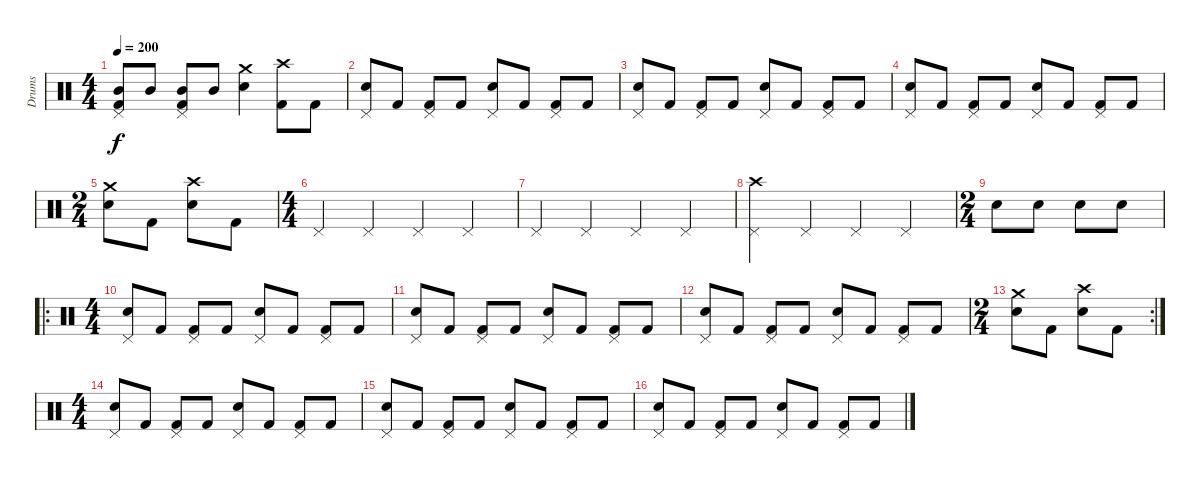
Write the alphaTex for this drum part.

\track ("Drums" "Drums") {instrument percussion}
\staff {score}
\articulation defaults
\ts (4 4)
\tempo 200
\clef neutral
\ks c
("Mid Tom (hit)" "Pedal Hi-Hat (hit)" "Kick (hit) 2").8{dy f} "Mid Tom (hit)".8 ("Mid Tom (hit)" "Pedal Hi-Hat (hit)" "Kick (hit) 2").8 "Mid Tom (hit)".8 ("Crash medium (hit)" "Electric Snare (hit)").4 ("Crash high (hit)" "Kick (hit) 2").8 "Kick (hit) 2".8 |
("Pedal Hi-Hat (hit)" "Electric Snare (hit)").8 "Kick (hit) 2".8 ("Pedal Hi-Hat (hit)" "Kick (hit) 2").8 "Kick (hit) 2".8 ("Pedal Hi-Hat (hit)" "Electric Snare (hit)").8 "Kick (hit) 2".8 ("Pedal Hi-Hat (hit)" "Kick (hit) 2").8 "Kick (hit) 2".8 |
("Pedal Hi-Hat (hit)" "Electric Snare (hit)").8 "Kick (hit) 2".8 ("Pedal Hi-Hat (hit)" "Kick (hit) 2").8 "Kick (hit) 2".8 ("Pedal Hi-Hat (hit)" "Electric Snare (hit)").8 "Kick (hit) 2".8 ("Pedal Hi-Hat (hit)" "Kick (hit) 2").8 "Kick (hit) 2".8 |
("Pedal Hi-Hat (hit)" "Electric Snare (hit)").8 "Kick (hit) 2".8 ("Pedal Hi-Hat (hit)" "Kick (hit) 2").8 "Kick (hit) 2".8 ("Pedal Hi-Hat (hit)" "Electric Snare (hit)").8 "Kick (hit) 2".8 ("Pedal Hi-Hat (hit)" "Kick (hit) 2").8 "Kick (hit) 2".8 |
\ts (2 4)
("Crash medium (hit)" "Electric Snare (hit)").8 "Kick (hit) 2".8 ("Crash high (hit)" "Electric Snare (hit)").8 "Kick (hit) 2".8 |
\ts (4 4)
"Pedal Hi-Hat (hit)".4 "Pedal Hi-Hat (hit)".4 "Pedal Hi-Hat (hit)".4 "Pedal Hi-Hat (hit)".4 |
"Pedal Hi-Hat (hit)".4 "Pedal Hi-Hat (hit)".4 "Pedal Hi-Hat (hit)".4 "Pedal Hi-Hat (hit)".4 |
("Pedal Hi-Hat (hit)" "Crash high (hit)").4 "Pedal Hi-Hat (hit)".4 "Pedal Hi-Hat (hit)".4 "Pedal Hi-Hat (hit)".4 |
\ts (2 4)
"Electric Snare (hit)".8 "Electric Snare (hit)".8 "Electric Snare (hit)".8 "Electric Snare (hit)".8 |
\ro
\ts (4 4)
("Pedal Hi-Hat (hit)" "Electric Snare (hit)").8 "Kick (hit) 2".8 ("Pedal Hi-Hat (hit)" "Kick (hit) 2").8 "Kick (hit) 2".8 ("Pedal Hi-Hat (hit)" "Electric Snare (hit)").8 "Kick (hit) 2".8 ("Pedal Hi-Hat (hit)" "Kick (hit) 2").8 "Kick (hit) 2".8 |
("Pedal Hi-Hat (hit)" "Electric Snare (hit)").8 "Kick (hit) 2".8 ("Pedal Hi-Hat (hit)" "Kick (hit) 2").8 "Kick (hit) 2".8 ("Pedal Hi-Hat (hit)" "Electric Snare (hit)").8 "Kick (hit) 2".8 ("Pedal Hi-Hat (hit)" "Kick (hit) 2").8 "Kick (hit) 2".8 |
("Pedal Hi-Hat (hit)" "Electric Snare (hit)").8 "Kick (hit) 2".8 ("Pedal Hi-Hat (hit)" "Kick (hit) 2").8 "Kick (hit) 2".8 ("Pedal Hi-Hat (hit)" "Electric Snare (hit)").8 "Kick (hit) 2".8 ("Pedal Hi-Hat (hit)" "Kick (hit) 2").8 "Kick (hit) 2".8 |
\rc 2
\ts (2 4)
("Crash medium (hit)" "Electric Snare (hit)").8 "Kick (hit) 2".8 ("Crash high (hit)" "Electric Snare (hit)").8 "Kick (hit) 2".8 |
\ts (4 4)
("Pedal Hi-Hat (hit)" "Electric Snare (hit)").8 "Kick (hit) 2".8 ("Pedal Hi-Hat (hit)" "Kick (hit) 2").8 "Kick (hit) 2".8 ("Pedal Hi-Hat (hit)" "Electric Snare (hit)").8 "Kick (hit) 2".8 ("Pedal Hi-Hat (hit)" "Kick (hit) 2").8 "Kick (hit) 2".8 |
("Pedal Hi-Hat (hit)" "Electric Snare (hit)").8 "Kick (hit) 2".8 ("Pedal Hi-Hat (hit)" "Kick (hit) 2").8 "Kick (hit) 2".8 ("Pedal Hi-Hat (hit)" "Electric Snare (hit)").8 "Kick (hit) 2".8 ("Pedal Hi-Hat (hit)" "Kick (hit) 2").8 "Kick (hit) 2".8 |
("Pedal Hi-Hat (hit)" "Electric Snare (hit)").8 "Kick (hit) 2".8 ("Pedal Hi-Hat (hit)" "Kick (hit) 2").8 "Kick (hit) 2".8 ("Pedal Hi-Hat (hit)" "Electric Snare (hit)").8 "Kick (hit) 2".8 ("Pedal Hi-Hat (hit)" "Kick (hit) 2").8 "Kick (hit) 2".8
